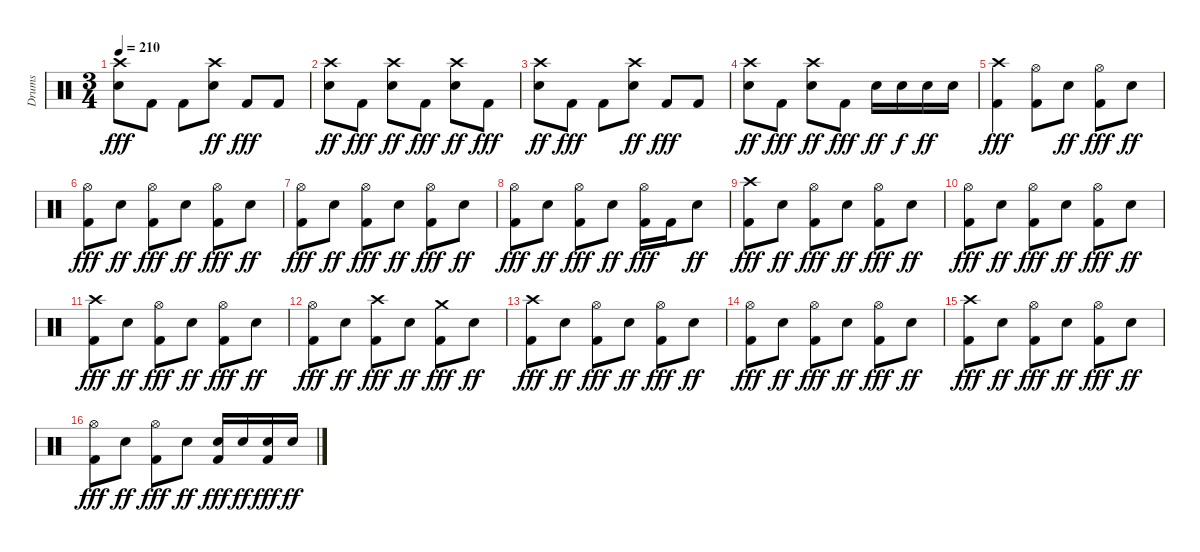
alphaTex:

\track ("Drums" "Drums") {instrument percussion}
\staff {score}
\articulation defaults
\ts (3 4)
\tempo 210
\clef neutral
\ks c
("Crash high (hit)" "Snare (hit) 2").8{dy fff} "Kick (hit) 2".8 "Kick (hit) 2".8 ("Crash high (hit)" "Snare (hit) 2").8{dy ff} "Kick (hit) 2".8{dy fff} "Kick (hit) 2".8 |
("Crash high (hit)" "Snare (hit) 2").8{dy ff} "Kick (hit) 2".8{dy fff} ("Crash high (hit)" "Snare (hit) 2").8{dy ff} "Kick (hit) 2".8{dy fff} ("Crash high (hit)" "Snare (hit) 2").8{dy ff} "Kick (hit) 2".8{dy fff} |
("Crash high (hit)" "Snare (hit) 2").8{dy ff} "Kick (hit) 2".8{dy fff} "Kick (hit) 2".8 ("Crash high (hit)" "Snare (hit) 2").8{dy ff} "Kick (hit) 2".8{dy fff} "Kick (hit) 2".8 |
("Crash high (hit)" "Snare (hit) 2").8{dy ff} "Kick (hit) 2".8{dy fff} ("Crash high (hit)" "Snare (hit) 2").8{dy ff} "Kick (hit) 2".8{dy fff} "Snare (hit) 2".16{dy ff} "Snare (hit) 2".16{dy f} "Snare (hit) 2".16{dy ff} "Snare (hit) 2".16 |
("Crash high (hit)" "Kick (hit) 2").4{dy fff} ("Hi-Hat (open)" "Kick (hit) 2").8 "Snare (hit) 2".8{dy ff} ("Hi-Hat (open)" "Kick (hit) 2").8{dy fff} "Snare (hit) 2".8{dy ff} |
("Hi-Hat (open)" "Kick (hit) 2").8{dy fff} "Snare (hit) 2".8{dy ff} ("Hi-Hat (open)" "Kick (hit) 2").8{dy fff} "Snare (hit) 2".8{dy ff} ("Hi-Hat (open)" "Kick (hit) 2").8{dy fff} "Snare (hit) 2".8{dy ff} |
("Hi-Hat (open)" "Kick (hit) 2").8{dy fff} "Snare (hit) 2".8{dy ff} ("Hi-Hat (open)" "Kick (hit) 2").8{dy fff} "Snare (hit) 2".8{dy ff} ("Hi-Hat (open)" "Kick (hit) 2").8{dy fff} "Snare (hit) 2".8{dy ff} |
("Hi-Hat (open)" "Kick (hit) 2").8{dy fff} "Snare (hit) 2".8{dy ff} ("Hi-Hat (open)" "Kick (hit) 2").8{dy fff} "Snare (hit) 2".8{dy ff} ("Hi-Hat (open)" "Kick (hit) 2").16{dy fff} "Kick (hit) 2".16 "Snare (hit) 2".8{dy ff} |
("Crash high (hit)" "Kick (hit) 2").8{dy fff} "Snare (hit) 2".8{dy ff} ("Hi-Hat (open)" "Kick (hit) 2").8{dy fff} "Snare (hit) 2".8{dy ff} ("Hi-Hat (open)" "Kick (hit) 2").8{dy fff} "Snare (hit) 2".8{dy ff} |
("Hi-Hat (open)" "Kick (hit) 2").8{dy fff} "Snare (hit) 2".8{dy ff} ("Hi-Hat (open)" "Kick (hit) 2").8{dy fff} "Snare (hit) 2".8{dy ff} ("Hi-Hat (open)" "Kick (hit) 2").8{dy fff} "Snare (hit) 2".8{dy ff} |
("Crash high (hit)" "Kick (hit) 2").8{dy fff} "Snare (hit) 2".8{dy ff} ("Hi-Hat (open)" "Kick (hit) 2").8{dy fff} "Snare (hit) 2".8{dy ff} ("Hi-Hat (open)" "Kick (hit) 2").8{dy fff} "Snare (hit) 2".8{dy ff} |
("Hi-Hat (open)" "Kick (hit) 2").8{dy fff} "Snare (hit) 2".8{dy ff} ("Crash high (hit)" "Kick (hit) 2").8{dy fff} "Snare (hit) 2".8{dy ff} ("Crash medium (hit)" "Kick (hit) 2").8{dy fff} "Snare (hit) 2".8{dy ff} |
("Crash high (hit)" "Kick (hit) 2").8{dy fff} "Snare (hit) 2".8{dy ff} ("Hi-Hat (open)" "Kick (hit) 2").8{dy fff} "Snare (hit) 2".8{dy ff} ("Hi-Hat (open)" "Kick (hit) 2").8{dy fff} "Snare (hit) 2".8{dy ff} |
("Hi-Hat (open)" "Kick (hit) 2").8{dy fff} "Snare (hit) 2".8{dy ff} ("Hi-Hat (open)" "Kick (hit) 2").8{dy fff} "Snare (hit) 2".8{dy ff} ("Hi-Hat (open)" "Kick (hit) 2").8{dy fff} "Snare (hit) 2".8{dy ff} |
("Crash high (hit)" "Kick (hit) 2").8{dy fff} "Snare (hit) 2".8{dy ff} ("Hi-Hat (open)" "Kick (hit) 2").8{dy fff} "Snare (hit) 2".8{dy ff} ("Hi-Hat (open)" "Kick (hit) 2").8{dy fff} "Snare (hit) 2".8{dy ff} |
("Hi-Hat (open)" "Kick (hit) 2").8{dy fff} "Snare (hit) 2".8{dy ff} ("Hi-Hat (open)" "Kick (hit) 2").8{dy fff} "Snare (hit) 2".8{dy ff} ("Snare (hit) 2" "Kick (hit) 2").16{dy fff} "Snare (hit) 2".16{dy ff} ("Snare (hit) 2" "Kick (hit) 2").16{dy fff} "Snare (hit) 2".16{dy ff}
